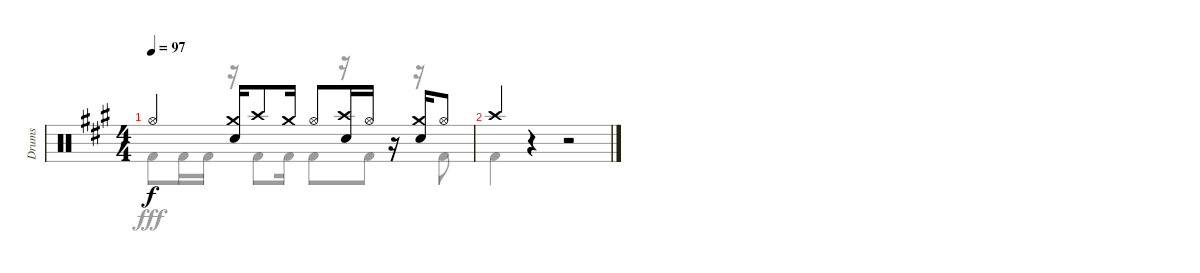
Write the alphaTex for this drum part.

\track ("Drums" "Drums") {instrument percussion}
\staff {score}
\articulation defaults
\voice
\ts (4 4)
\tempo 97
\clef neutral
\ks a "Hi-Hat (open)".4{dy f}
("Crash medium (hit)" "Snare (hit) 2").16 "Crash high (hit)".8 "Crash medium (hit)".16 "Hi-Hat (open)".8 ("Crash high (hit)" "Snare (hit) 2").16 "Hi-Hat (open)".16 r.16 ("Crash medium (hit)" "Snare (hit) 2").16 "Hi-Hat (open)".8 |
"Crash high (hit)".4 r.4 r.2
\voice
\clef neutral
\ottava regular
\simile none
\ks a "Kick (hit) 2".8{dy fff} "Kick (hit) 2".16 "Kick (hit) 2".16
r.16 "Kick (hit) 2".8 "Kick (hit) 2".16 "Kick (hit) 2".8 r.16 "Kick (hit) 2".8 r.16 "Kick (hit) 2".8 |
"Kick (hit) 2".4 r.4 r.2
